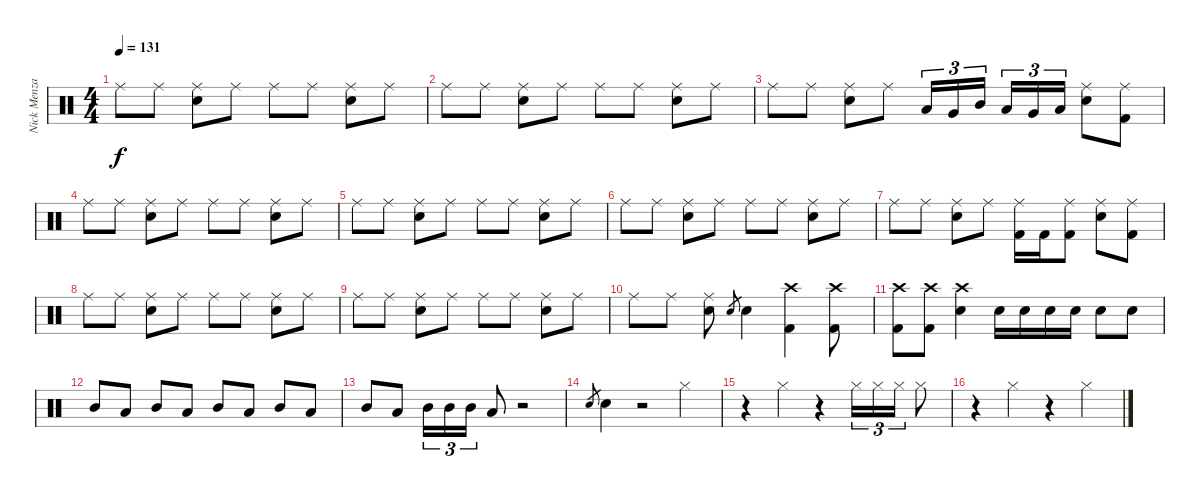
\track ("Nick Menza" "Nick Menza") {instrument percussion}
\staff {score}
\articulation defaults
\ts (4 4)
\tempo 131
\clef neutral
\ks c "Ride (middle)".8{dy f} "Ride (middle)".8
("Ride (middle)" "Snare (hit) 2").8 "Ride (middle)".8 "Ride (middle)".8 "Ride (middle)".8 ("Ride (middle)" "Snare (hit) 2").8 "Ride (middle)".8 |
"Ride (middle)".8 "Ride (middle)".8 ("Ride (middle)" "Snare (hit) 2").8 "Ride (middle)".8 "Ride (middle)".8 "Ride (middle)".8 ("Ride (middle)" "Snare (hit) 2").8 "Ride (middle)".8 |
"Ride (middle)".8 "Ride (middle)".8 ("Ride (middle)" "Snare (hit) 2").8 "Ride (middle)".8 "Low Tom (hit)".16{tu (3 2)} "Very Low Tom (hit)".16{tu (3 2)} "Mid Tom (hit)".16{tu (3 2)} "Low Tom (hit)".16{tu (3 2)} "Very Low Tom (hit)".16{tu (3 2)} "Low Tom (hit)".16{tu (3 2)} ("Ride (middle)" "Snare (hit) 2").8 ("Ride (middle)" "Kick (hit) 2").8 |
"Ride (middle)".8 "Ride (middle)".8 ("Ride (middle)" "Snare (hit) 2").8 "Ride (middle)".8 "Ride (middle)".8 "Ride (middle)".8 ("Ride (middle)" "Snare (hit) 2").8 "Ride (middle)".8 |
"Ride (middle)".8 "Ride (middle)".8 ("Ride (middle)" "Snare (hit) 2").8 "Ride (middle)".8 "Ride (middle)".8 "Ride (middle)".8 ("Ride (middle)" "Snare (hit) 2").8 "Ride (middle)".8 |
"Ride (middle)".8 "Ride (middle)".8 ("Ride (middle)" "Snare (hit) 2").8 "Ride (middle)".8 "Ride (middle)".8 "Ride (middle)".8 ("Ride (middle)" "Snare (hit) 2").8 "Ride (middle)".8 |
"Ride (middle)".8 "Ride (middle)".8 ("Ride (middle)" "Snare (hit) 2").8 "Ride (middle)".8 ("Ride (middle)" "Kick (hit) 2").16 "Kick (hit) 2".16 ("Ride (middle)" "Kick (hit) 2").8 ("Ride (middle)" "Snare (hit) 2").8 ("Ride (middle)" "Kick (hit) 2").8 |
"Ride (middle)".8 "Ride (middle)".8 ("Ride (middle)" "Snare (hit) 2").8 "Ride (middle)".8 "Ride (middle)".8 "Ride (middle)".8 ("Ride (middle)" "Snare (hit) 2").8 "Ride (middle)".8 |
"Ride (middle)".8 "Ride (middle)".8 ("Ride (middle)" "Snare (hit) 2").8 "Ride (middle)".8 "Ride (middle)".8 "Ride (middle)".8 ("Ride (middle)" "Snare (hit) 2").8 "Ride (middle)".8 |
"Ride (middle)".8 "Ride (middle)".8 ("Ride (middle)" "Snare (hit) 2").8 "Snare (hit) 2".8{gr} "Snare (hit) 2".4 ("Crash high (hit)" "Kick (hit) 2").4 ("Crash high (hit)" "Kick (hit) 2").8 |
("Crash high (hit)" "Kick (hit) 2").8 ("Crash high (hit)" "Kick (hit) 2").8 ("Crash high (hit)" "Snare (hit) 2").4 "Snare (hit) 2".16 "Snare (hit) 2".16 "Snare (hit) 2".16 "Snare (hit) 2".16 "Snare (hit) 2".8 "Snare (hit) 2".8 |
"Mid Tom (hit)".8 "Low Tom (hit)".8 "Mid Tom (hit)".8 "Low Tom (hit)".8 "Mid Tom (hit)".8 "Low Tom (hit)".8 "Mid Tom (hit)".8 "Low Tom (hit)".8 |
"Mid Tom (hit)".8 "Low Tom (hit)".8 "Mid Tom (hit)".16{tu (3 2)} "Mid Tom (hit)".16{tu (3 2)} "Mid Tom (hit)".16{tu (3 2)} "Low Tom (hit)".8 r.2 |
"Snare (hit) 2".8{gr} "Snare (hit) 2".4 r.2 "Hi-Hat (closed)".4 |
r.4 "Hi-Hat (closed)".4 r.4 "Hi-Hat (closed)".16{tu (3 2)} "Hi-Hat (closed)".16{tu (3 2)} "Hi-Hat (closed)".16{tu (3 2)} "Hi-Hat (closed)".8 |
r.4 "Hi-Hat (closed)".4 r.4 "Hi-Hat (closed)".4
